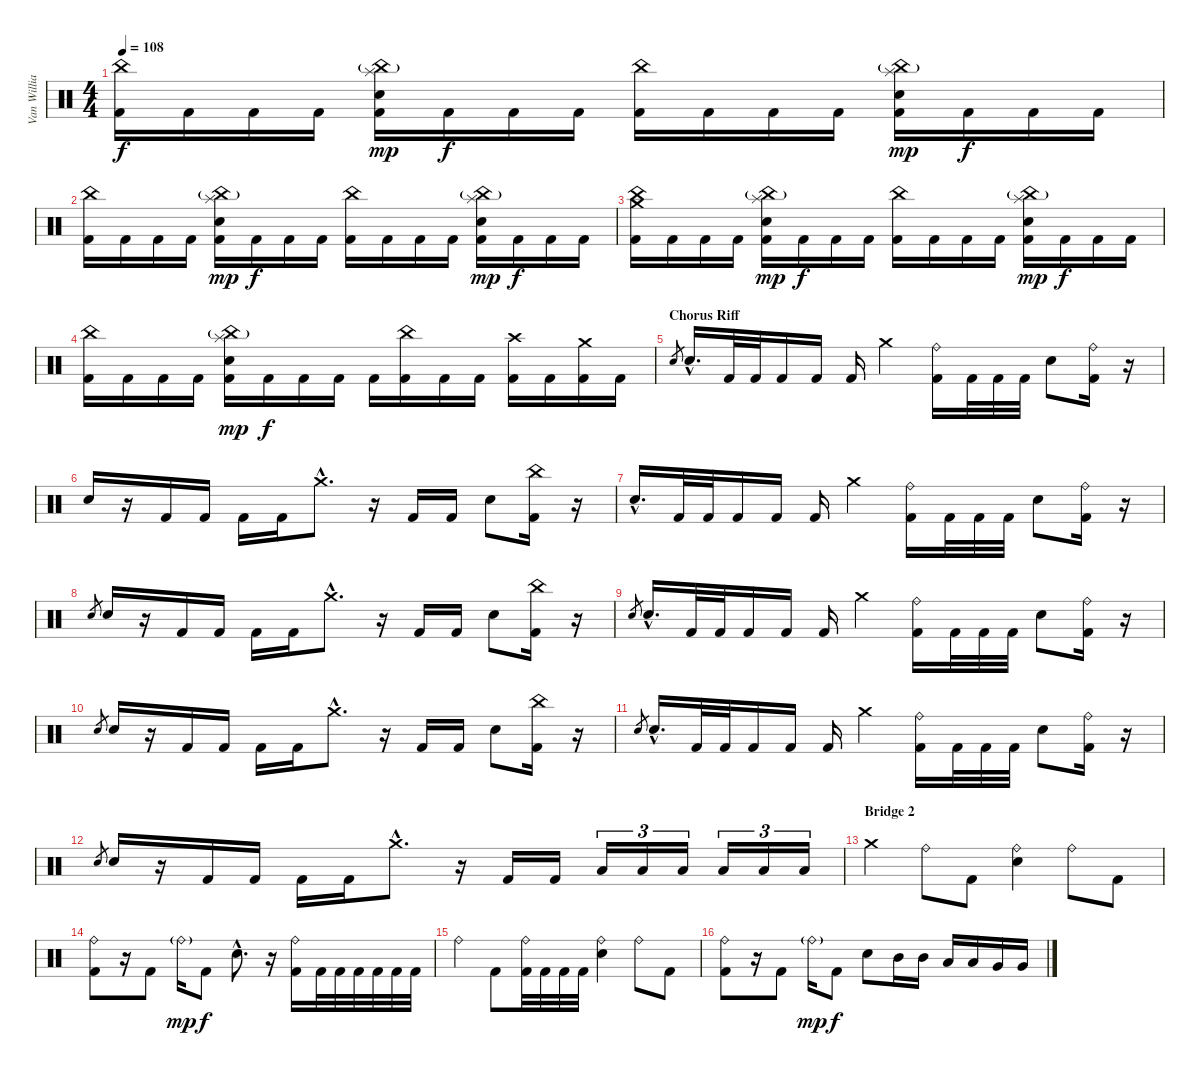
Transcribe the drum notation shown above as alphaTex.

\track ("Van Williams" "Van Willia") {instrument percussion}
\staff {score}
\articulation defaults
\ts (4 4)
\tempo 108
\clef neutral
\ks c
("China (hit)" "Kick (hit) 2").16{dy f} "Kick (hit) 2".16 "Kick (hit) 2".16 "Kick (hit) 2".16 ("Splash (hit)" "China (hit)"{g} "Electric Snare (hit)" "Kick (hit) 2").16{dy mp} "Kick (hit) 2".16{dy f} "Kick (hit) 2".16 "Kick (hit) 2".16 ("China (hit)" "Kick (hit) 2").16 "Kick (hit) 2".16 "Kick (hit) 2".16 "Kick (hit) 2".16 ("Splash (hit)" "China (hit)"{g} "Electric Snare (hit)" "Kick (hit) 2").16{dy mp} "Kick (hit) 2".16{dy f} "Kick (hit) 2".16 "Kick (hit) 2".16 |
("China (hit)" "Kick (hit) 2").16 "Kick (hit) 2".16 "Kick (hit) 2".16 "Kick (hit) 2".16 ("Splash (hit)" "China (hit)"{g} "Electric Snare (hit)" "Kick (hit) 2").16{dy mp} "Kick (hit) 2".16{dy f} "Kick (hit) 2".16 "Kick (hit) 2".16 ("China (hit)" "Kick (hit) 2").16 "Kick (hit) 2".16 "Kick (hit) 2".16 "Kick (hit) 2".16 ("Splash (hit)" "China (hit)"{g} "Electric Snare (hit)" "Kick (hit) 2").16{dy mp} "Kick (hit) 2".16{dy f} "Kick (hit) 2".16 "Kick (hit) 2".16 |
("China (hit)" "Crash medium (hit)" "Kick (hit) 2").16 "Kick (hit) 2".16 "Kick (hit) 2".16 "Kick (hit) 2".16 ("Splash (hit)" "China (hit)"{g} "Electric Snare (hit)" "Kick (hit) 2").16{dy mp} "Kick (hit) 2".16{dy f} "Kick (hit) 2".16 "Kick (hit) 2".16 ("China (hit)" "Kick (hit) 2").16 "Kick (hit) 2".16 "Kick (hit) 2".16 "Kick (hit) 2".16 ("Splash (hit)" "China (hit)"{g} "Electric Snare (hit)" "Kick (hit) 2").16{dy mp} "Kick (hit) 2".16{dy f} "Kick (hit) 2".16 "Kick (hit) 2".16 |
("China (hit)" "Kick (hit) 2").16 "Kick (hit) 2".16 "Kick (hit) 2".16 "Kick (hit) 2".16 ("Splash (hit)" "China (hit)"{g} "Electric Snare (hit)" "Kick (hit) 2").16{dy mp} "Kick (hit) 2".16{dy f} "Kick (hit) 2".16 "Kick (hit) 2".16 "Kick (hit) 2".16 ("China (hit)" "Kick (hit) 2").16 "Kick (hit) 2".16 "Kick (hit) 2".16 ("Crash high (hit)" "Kick (hit) 2").16 "Kick (hit) 2".16 ("Crash medium (hit)" "Kick (hit) 2").16 "Kick (hit) 2".16 |
\section ("" "Chorus Riff")
"Electric Snare (hit)".8{gr} "Electric Snare (hit)"{hac}.16{d} "Kick (hit) 2".32 "Kick (hit) 2".32 "Kick (hit) 2".16 "Kick (hit) 2".16 "Kick (hit) 2".16 "Crash medium (hit)".4 ("Ride (bell)" "Kick (hit) 2").16 "Kick (hit) 2".32 "Kick (hit) 2".32 "Kick (hit) 2".32 "Electric Snare (hit)".8 ("Ride (bell)" "Kick (hit) 2").16 r.16 |
"Electric Snare (hit)".16 r.16 "Kick (hit) 2".16 "Kick (hit) 2".16 "Kick (hit) 2".16 "Kick (hit) 2".16 "Crash medium (hit)"{hac}.8{d} r.16 "Kick (hit) 2".16 "Kick (hit) 2".16 "Electric Snare (hit)".8 ("China (hit)" "Kick (hit) 2").16 r.16 |
"Electric Snare (hit)"{hac}.16{d} "Kick (hit) 2".32 "Kick (hit) 2".32 "Kick (hit) 2".16 "Kick (hit) 2".16 "Kick (hit) 2".16 "Crash medium (hit)".4 ("Ride (bell)" "Kick (hit) 2").16 "Kick (hit) 2".32 "Kick (hit) 2".32 "Kick (hit) 2".32 "Electric Snare (hit)".8 ("Ride (bell)" "Kick (hit) 2").16 r.16 |
"Electric Snare (hit)".8{gr} "Electric Snare (hit)".16 r.16 "Kick (hit) 2".16 "Kick (hit) 2".16 "Kick (hit) 2".16 "Kick (hit) 2".16 "Crash medium (hit)"{hac}.8{d} r.16 "Kick (hit) 2".16 "Kick (hit) 2".16 "Electric Snare (hit)".8 ("China (hit)" "Kick (hit) 2").16 r.16 |
"Electric Snare (hit)".8{gr} "Electric Snare (hit)"{hac}.16{d} "Kick (hit) 2".32 "Kick (hit) 2".32 "Kick (hit) 2".16 "Kick (hit) 2".16 "Kick (hit) 2".16 "Crash medium (hit)".4 ("Ride (bell)" "Kick (hit) 2").16 "Kick (hit) 2".32 "Kick (hit) 2".32 "Kick (hit) 2".32 "Electric Snare (hit)".8 ("Ride (bell)" "Kick (hit) 2").16 r.16 |
"Electric Snare (hit)".8{gr} "Electric Snare (hit)".16 r.16 "Kick (hit) 2".16 "Kick (hit) 2".16 "Kick (hit) 2".16 "Kick (hit) 2".16 "Crash medium (hit)"{hac}.8{d} r.16 "Kick (hit) 2".16 "Kick (hit) 2".16 "Electric Snare (hit)".8 ("China (hit)" "Kick (hit) 2").16 r.16 |
"Electric Snare (hit)".8{gr} "Electric Snare (hit)"{hac}.16{d} "Kick (hit) 2".32 "Kick (hit) 2".32 "Kick (hit) 2".16 "Kick (hit) 2".16 "Kick (hit) 2".16 "Crash medium (hit)".4 ("Ride (bell)" "Kick (hit) 2").16 "Kick (hit) 2".32 "Kick (hit) 2".32 "Kick (hit) 2".32 "Electric Snare (hit)".8 ("Ride (bell)" "Kick (hit) 2").16 r.16 |
"Electric Snare (hit)".8{gr} "Electric Snare (hit)".16 r.16 "Kick (hit) 2".16 "Kick (hit) 2".16 "Kick (hit) 2".16 "Kick (hit) 2".16 "Crash medium (hit)"{hac}.8{d} r.16 "Kick (hit) 2".16 "Kick (hit) 2".16 "Low Tom (hit)".16{tu (3 2)} "Low Tom (hit)".16{tu (3 2)} "Low Tom (hit)".16{tu (3 2)} "Low Tom (hit)".16{tu (3 2)} "Low Tom (hit)".16{tu (3 2)} "Low Tom (hit)".16{tu (3 2)} |
\section ("" "Bridge 2")
"Crash medium (hit)".4 "Ride (bell)".8 "Kick (hit) 2".8 ("Ride (bell)" "Electric Snare (hit)").4 "Ride (bell)".8 "Kick (hit) 2".8 |
("Ride (bell)" "Kick (hit) 2").8 r.16 "Kick (hit) 2".8 "Ride (bell)"{g}.16{dy mp} "Kick (hit) 2".8{dy f} "Electric Snare (hit)"{hac}.8{d} r.16 ("Ride (bell)" "Kick (hit) 2").16 "Kick (hit) 2".32 "Kick (hit) 2".32 "Kick (hit) 2".32 "Kick (hit) 2".32 "Kick (hit) 2".32 "Kick (hit) 2".32 |
"Ride (bell)".4 "Kick (hit) 2".8 ("Ride (bell)" "Kick (hit) 2").32 "Kick (hit) 2".32 "Kick (hit) 2".32 "Kick (hit) 2".32 ("Ride (bell)" "Electric Snare (hit)").4 "Ride (bell)".8 "Kick (hit) 2".8 |
("Ride (bell)" "Kick (hit) 2").8 r.16 "Kick (hit) 2".8 "Ride (bell)"{g}.16{dy mp} "Kick (hit) 2".8{dy f} "Electric Snare (hit)".8 "Mid Tom (hit)".16 "Mid Tom (hit)".16 "Low Tom (hit)".16 "Low Tom (hit)".16 "Very Low Tom (hit)".16 "Very Low Tom (hit)".16
